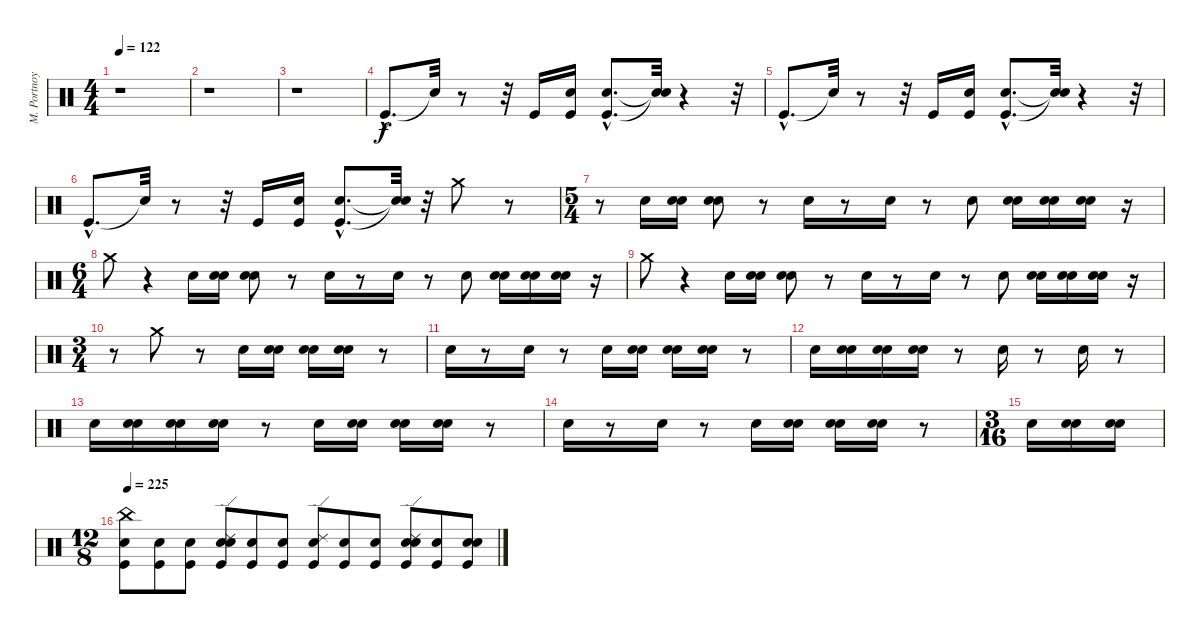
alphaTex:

\track ("M. Portnoy" "M. Portnoy") {instrument percussion}
\staff {score}
\articulation defaults
\ts (4 4)
\tempo 122
\clef neutral
\ks c
r.1{dy f} |
r.1 |
r.1 |
"Kick (hit)"{hac}.8{d} "Snare (hit)"{t}.32 r.8 r.32 "Kick (hit)".16 ("Snare (hit)" "Kick (hit)").16 ("Snare (hit)"{hac} "Kick (hit)"{hac}).8{d} ("Snare (hit)"{t} "Snare (hit)"{t}).32 r.4 r.32 |
"Kick (hit)"{hac}.8{d} "Snare (hit)"{t}.32 r.8 r.32 "Kick (hit)".16 ("Snare (hit)" "Kick (hit)").16 ("Snare (hit)"{hac} "Kick (hit)"{hac}).8{d} ("Snare (hit)"{t} "Snare (hit)"{t}).32 r.4 r.32 |
"Kick (hit)"{hac}.8{d} "Snare (hit)"{t}.32 r.8 r.32 "Kick (hit)".16 ("Snare (hit)" "Kick (hit)").16 ("Snare (hit)"{hac} "Kick (hit)"{hac}).8{d} ("Snare (hit)"{t} "Snare (hit)"{t}).32 r.32 "Crash medium (hit)".8 r.8 |
\ts (5 4)
r.8 "Snare (hit) 2".16 ("Snare (hit)" "Snare (hit) 2").16 ("Snare (hit)" "Snare (hit) 2").8 r.8 "Snare (hit) 2".16 r.8 "Snare (hit) 2".16 r.8 "Snare (hit) 2".8 ("Snare (hit)" "Snare (hit) 2").16 ("Snare (hit)" "Snare (hit) 2").16 ("Snare (hit)" "Snare (hit) 2").16 r.16 |
\ts (6 4)
"Crash medium (hit)".8 r.4 "Snare (hit) 2".16 ("Snare (hit)" "Snare (hit) 2").16 ("Snare (hit)" "Snare (hit) 2").8 r.8 "Snare (hit) 2".16 r.8 "Snare (hit) 2".16 r.8 "Snare (hit) 2".8 ("Snare (hit)" "Snare (hit) 2").16 ("Snare (hit)" "Snare (hit) 2").16 ("Snare (hit)" "Snare (hit) 2").16 r.16 |
"Crash medium (hit)".8 r.4 "Snare (hit) 2".16 ("Snare (hit)" "Snare (hit) 2").16 ("Snare (hit)" "Snare (hit) 2").8 r.8 "Snare (hit) 2".16 r.8 "Snare (hit) 2".16 r.8 "Snare (hit) 2".8 ("Snare (hit)" "Snare (hit) 2").16 ("Snare (hit)" "Snare (hit) 2").16 ("Snare (hit)" "Snare (hit) 2").16 r.16 |
\ts (3 4)
r.8 "Crash medium (hit)".8 r.8 "Snare (hit) 2".16 ("Snare (hit)" "Snare (hit) 2").16 ("Snare (hit)" "Snare (hit) 2").16 ("Snare (hit)" "Snare (hit) 2").16 r.8 |
"Snare (hit) 2".16 r.8 "Snare (hit) 2".16 r.8 "Snare (hit) 2".16 ("Snare (hit)" "Snare (hit) 2").16 ("Snare (hit)" "Snare (hit) 2").16 ("Snare (hit)" "Snare (hit) 2").16 r.8 |
"Snare (hit) 2".16 ("Snare (hit)" "Snare (hit) 2").16 ("Snare (hit)" "Snare (hit) 2").16 ("Snare (hit)" "Snare (hit) 2").16 r.8 "Snare (hit) 2".16 r.8 "Snare (hit) 2".16 r.8 |
"Snare (hit) 2".16 ("Snare (hit)" "Snare (hit) 2").16 ("Snare (hit)" "Snare (hit) 2").16 ("Snare (hit)" "Snare (hit) 2").16 r.8 "Snare (hit) 2".16 ("Snare (hit)" "Snare (hit) 2").16 ("Snare (hit)" "Snare (hit) 2").16 ("Snare (hit)" "Snare (hit) 2").16 r.8 |
"Snare (hit) 2".16 r.8 "Snare (hit) 2".16 r.8 "Snare (hit) 2".16 ("Snare (hit)" "Snare (hit) 2").16 ("Snare (hit)" "Snare (hit) 2").16 ("Snare (hit)" "Snare (hit) 2").16 r.8 |
\ts (3 16)
"Snare (hit) 2".16 ("Snare (hit)" "Snare (hit) 2").16 ("Snare (hit)" "Snare (hit) 2").16 |
\ts (12 8)
\tempo 225
("Snare (hit)" "Kick (hit)" "China (hit)").8 ("Snare (hit)" "Kick (hit)").8 ("Snare (hit)" "Kick (hit)").8 ("Snare (hit)" "Kick (hit)" "Snare (hit) 2" "Ride (edge) 2").8 ("Snare (hit)" "Kick (hit)").8 ("Snare (hit)" "Kick (hit)").8 ("Snare (hit)" "Kick (hit)" "Ride (edge) 2").8 ("Snare (hit)" "Kick (hit)").8 ("Snare (hit)" "Kick (hit)").8 ("Snare (hit)" "Kick (hit)" "Snare (hit) 2" "Ride (edge) 2").8 ("Snare (hit)" "Kick (hit)").8 ("Snare (hit)" "Kick (hit)" "Snare (hit) 2").8
